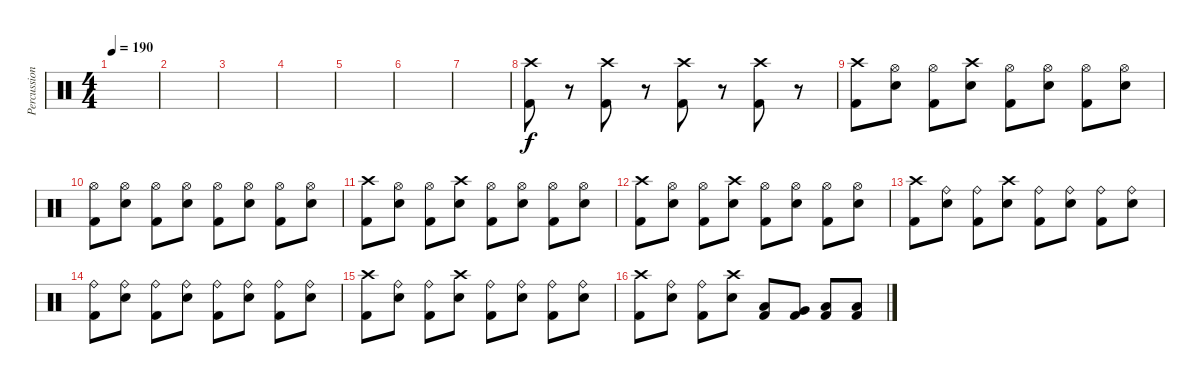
\track ("Percussion" "Percussion") {instrument percussion}
\staff {score}
\articulation defaults
\ts (4 4)
\tempo 190
\clef neutral
\ks c
|
|
|
|
|
|
|
("Crash high (hit)" "Kick (hit) 2").8{volume 13} r.8{volume 0} ("Crash high (hit)" "Kick (hit) 2").8{volume 13} r.8{volume 0} ("Crash high (hit)" "Kick (hit) 2").8{volume 13} r.8{volume 0} ("Crash high (hit)" "Kick (hit) 2").8{volume 13} r.8{volume 0} |
("Crash high (hit)" "Kick (hit) 2").8{volume 13} ("Hi-Hat (open)" "Snare (hit) 2").8 ("Hi-Hat (open)" "Kick (hit) 2").8 ("Crash high (hit)" "Snare (hit) 2").8 ("Hi-Hat (open)" "Kick (hit) 2").8 ("Hi-Hat (open)" "Snare (hit) 2").8 ("Hi-Hat (open)" "Kick (hit) 2").8 ("Hi-Hat (open)" "Snare (hit) 2").8 |
("Hi-Hat (open)" "Kick (hit) 2").8 ("Hi-Hat (open)" "Snare (hit) 2").8 ("Hi-Hat (open)" "Kick (hit) 2").8 ("Hi-Hat (open)" "Snare (hit) 2").8 ("Hi-Hat (open)" "Kick (hit) 2").8 ("Hi-Hat (open)" "Snare (hit) 2").8 ("Hi-Hat (open)" "Kick (hit) 2").8 ("Hi-Hat (open)" "Snare (hit) 2").8 |
("Crash high (hit)" "Kick (hit) 2").8 ("Hi-Hat (open)" "Snare (hit) 2").8 ("Hi-Hat (open)" "Kick (hit) 2").8 ("Crash high (hit)" "Snare (hit) 2").8 ("Hi-Hat (open)" "Kick (hit) 2").8 ("Hi-Hat (open)" "Snare (hit) 2").8 ("Hi-Hat (open)" "Kick (hit) 2").8 ("Hi-Hat (open)" "Snare (hit) 2").8 |
("Crash high (hit)" "Kick (hit) 2").8 ("Hi-Hat (open)" "Snare (hit) 2").8 ("Hi-Hat (open)" "Kick (hit) 2").8 ("Crash high (hit)" "Snare (hit) 2").8 ("Hi-Hat (open)" "Kick (hit) 2").8 ("Hi-Hat (open)" "Snare (hit) 2").8 ("Hi-Hat (open)" "Kick (hit) 2").8 ("Hi-Hat (open)" "Snare (hit) 2").8 |
("Crash high (hit)" "Kick (hit) 2").8 ("Ride (bell)" "Snare (hit) 2").8 ("Ride (bell)" "Kick (hit) 2").8 ("Crash high (hit)" "Snare (hit) 2").8 ("Ride (bell)" "Kick (hit) 2").8 ("Ride (bell)" "Snare (hit) 2").8 ("Ride (bell)" "Kick (hit) 2").8 ("Ride (bell)" "Snare (hit) 2").8 |
("Ride (bell)" "Kick (hit) 2").8 ("Ride (bell)" "Snare (hit) 2").8 ("Ride (bell)" "Kick (hit) 2").8 ("Ride (bell)" "Snare (hit) 2").8 ("Ride (bell)" "Kick (hit) 2").8 ("Ride (bell)" "Snare (hit) 2").8 ("Ride (bell)" "Kick (hit) 2").8 ("Ride (bell)" "Snare (hit) 2").8 |
("Crash high (hit)" "Kick (hit) 2").8 ("Ride (bell)" "Snare (hit) 2").8 ("Ride (bell)" "Kick (hit) 2").8 ("Crash high (hit)" "Snare (hit) 2").8 ("Ride (bell)" "Kick (hit) 2").8 ("Ride (bell)" "Snare (hit) 2").8 ("Ride (bell)" "Kick (hit) 2").8 ("Ride (bell)" "Snare (hit) 2").8 |
("Crash high (hit)" "Kick (hit) 2").8 ("Ride (bell)" "Snare (hit) 2").8 ("Ride (bell)" "Kick (hit) 2").8 ("Crash high (hit)" "Snare (hit) 2").8 ("Low Tom (hit)" "Kick (hit) 2").8 ("Very Low Tom (hit)" "Kick (hit) 2").8 ("Low Floor Tom (hit)" "Kick (hit) 2").8 ("Low Floor Tom (hit)" "Kick (hit) 2").8
